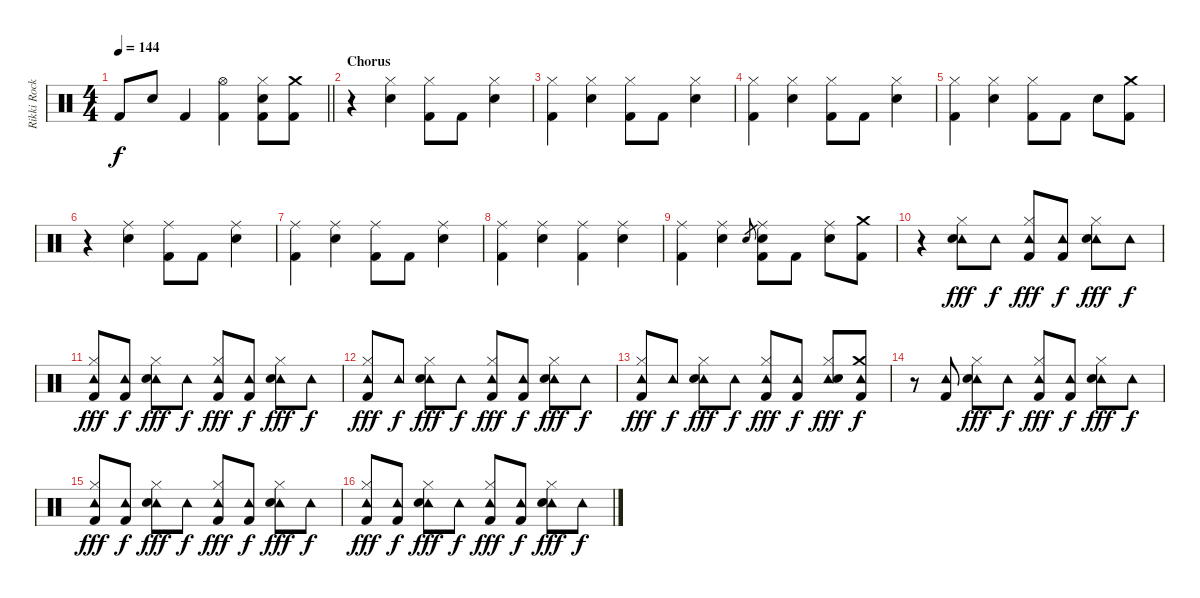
\track ("Rikki Rockett - Drums" "Rikki Rock") {instrument percussion}
\staff {score}
\articulation defaults
\ts (4 4)
\tempo 144
\clef neutral
\barLineRight lightlight
\ks c "Kick (hit) 2".8{dy f} "Electric Snare (hit)".8 "Kick (hit) 2".4
("Hi-Hat (open)" "Kick (hit) 2").4 ("Hi-Hat (closed)" "Electric Snare (hit)" "Kick (hit) 2").8 ("Crash medium (hit)" "Kick (hit) 2").8 |
\section ("" "Chorus")
r.4 ("Hi-Hat (closed)" "Electric Snare (hit)").4 ("Hi-Hat (closed)" "Kick (hit) 2").8 "Kick (hit) 2".8 ("Hi-Hat (closed)" "Electric Snare (hit)").4 |
("Hi-Hat (closed)" "Kick (hit) 2").4 ("Hi-Hat (closed)" "Electric Snare (hit)").4 ("Hi-Hat (closed)" "Kick (hit) 2").8 "Kick (hit) 2".8 ("Hi-Hat (closed)" "Electric Snare (hit)").4 |
("Hi-Hat (closed)" "Kick (hit) 2").4 ("Hi-Hat (closed)" "Electric Snare (hit)").4 ("Hi-Hat (closed)" "Kick (hit) 2").8 "Kick (hit) 2".8 ("Hi-Hat (closed)" "Electric Snare (hit)").4 |
("Hi-Hat (closed)" "Kick (hit) 2").4 ("Hi-Hat (closed)" "Electric Snare (hit)").4 ("Hi-Hat (closed)" "Kick (hit) 2").8 "Kick (hit) 2".8 "Electric Snare (hit)".8 ("Crash medium (hit)" "Kick (hit) 2").8 |
r.4 ("Ride (middle)" "Electric Snare (hit)").4 ("Ride (middle)" "Kick (hit) 2").8 "Kick (hit) 2".8 ("Ride (middle)" "Electric Snare (hit)").4 |
("Ride (middle)" "Kick (hit) 2").4 ("Ride (middle)" "Electric Snare (hit)").4 ("Ride (middle)" "Kick (hit) 2").8 "Kick (hit) 2".8 ("Ride (middle)" "Electric Snare (hit)").4 |
("Ride (middle)" "Kick (hit) 2").4 ("Ride (middle)" "Electric Snare (hit)").4 ("Ride (middle)" "Kick (hit) 2").4 ("Ride (middle)" "Electric Snare (hit)").4 |
("Ride (middle)" "Kick (hit) 2").4 ("Ride (middle)" "Electric Snare (hit)").4 "Electric Snare (hit)".8{gr} ("Ride (middle)" "Electric Snare (hit)" "Kick (hit) 2").8 "Kick (hit) 2".8 ("Ride (middle)" "Electric Snare (hit)").8 ("Crash medium (hit)" "Kick (hit) 2").8 |
r.4 ("Hi-Hat (closed)" "Tambourine (hit)" "Electric Snare (hit)").8{dy fff} "Tambourine (hit)".8{dy f} ("Hi-Hat (closed)" "Tambourine (hit)" "Kick (hit) 2").8{dy fff} ("Tambourine (hit)" "Kick (hit) 2").8{dy f} ("Hi-Hat (closed)" "Tambourine (hit)" "Electric Snare (hit)").8{dy fff} "Tambourine (hit)".8{dy f} |
("Hi-Hat (closed)" "Tambourine (hit)" "Kick (hit) 2").8{dy fff} ("Tambourine (hit)" "Kick (hit) 2").8{dy f} ("Hi-Hat (closed)" "Tambourine (hit)" "Electric Snare (hit)").8{dy fff} "Tambourine (hit)".8{dy f} ("Hi-Hat (closed)" "Tambourine (hit)" "Kick (hit) 2").8{dy fff} ("Tambourine (hit)" "Kick (hit) 2").8{dy f} ("Hi-Hat (closed)" "Tambourine (hit)" "Electric Snare (hit)").8{dy fff} "Tambourine (hit)".8{dy f} |
("Hi-Hat (closed)" "Tambourine (hit)" "Kick (hit) 2").8{dy fff} "Tambourine (hit)".8{dy f} ("Hi-Hat (closed)" "Tambourine (hit)" "Electric Snare (hit)").8{dy fff} "Tambourine (hit)".8{dy f} ("Hi-Hat (closed)" "Tambourine (hit)" "Kick (hit) 2").8{dy fff} ("Tambourine (hit)" "Kick (hit) 2").8{dy f} ("Hi-Hat (closed)" "Tambourine (hit)" "Electric Snare (hit)").8{dy fff} "Tambourine (hit)".8{dy f} |
("Hi-Hat (closed)" "Tambourine (hit)" "Kick (hit) 2").8{dy fff} "Tambourine (hit)".8{dy f} ("Hi-Hat (closed)" "Tambourine (hit)" "Electric Snare (hit)").8{dy fff} "Tambourine (hit)".8{dy f} ("Hi-Hat (closed)" "Tambourine (hit)" "Kick (hit) 2").8{dy fff} ("Tambourine (hit)" "Kick (hit) 2").8{dy f} ("Hi-Hat (closed)" "Tambourine (hit)" "Electric Snare (hit)").8{dy fff} ("Crash medium (hit)" "Tambourine (hit)" "Kick (hit) 2").8{dy f} |
r.8 ("Tambourine (hit)" "Kick (hit) 2").8 ("Hi-Hat (closed)" "Tambourine (hit)" "Electric Snare (hit)").8{dy fff} "Tambourine (hit)".8{dy f} ("Hi-Hat (closed)" "Tambourine (hit)" "Kick (hit) 2").8{dy fff} ("Tambourine (hit)" "Kick (hit) 2").8{dy f} ("Hi-Hat (closed)" "Tambourine (hit)" "Electric Snare (hit)").8{dy fff} "Tambourine (hit)".8{dy f} |
("Hi-Hat (closed)" "Tambourine (hit)" "Kick (hit) 2").8{dy fff} ("Tambourine (hit)" "Kick (hit) 2").8{dy f} ("Hi-Hat (closed)" "Tambourine (hit)" "Electric Snare (hit)").8{dy fff} "Tambourine (hit)".8{dy f} ("Hi-Hat (closed)" "Tambourine (hit)" "Kick (hit) 2").8{dy fff} ("Tambourine (hit)" "Kick (hit) 2").8{dy f} ("Hi-Hat (closed)" "Tambourine (hit)" "Electric Snare (hit)").8{dy fff} "Tambourine (hit)".8{dy f} |
("Hi-Hat (closed)" "Tambourine (hit)" "Kick (hit) 2").8{dy fff} ("Tambourine (hit)" "Kick (hit) 2").8{dy f} ("Hi-Hat (closed)" "Tambourine (hit)" "Electric Snare (hit)").8{dy fff} "Tambourine (hit)".8{dy f} ("Hi-Hat (closed)" "Tambourine (hit)" "Kick (hit) 2").8{dy fff} ("Tambourine (hit)" "Kick (hit) 2").8{dy f} ("Hi-Hat (closed)" "Tambourine (hit)" "Electric Snare (hit)").8{dy fff} "Tambourine (hit)".8{dy f}
